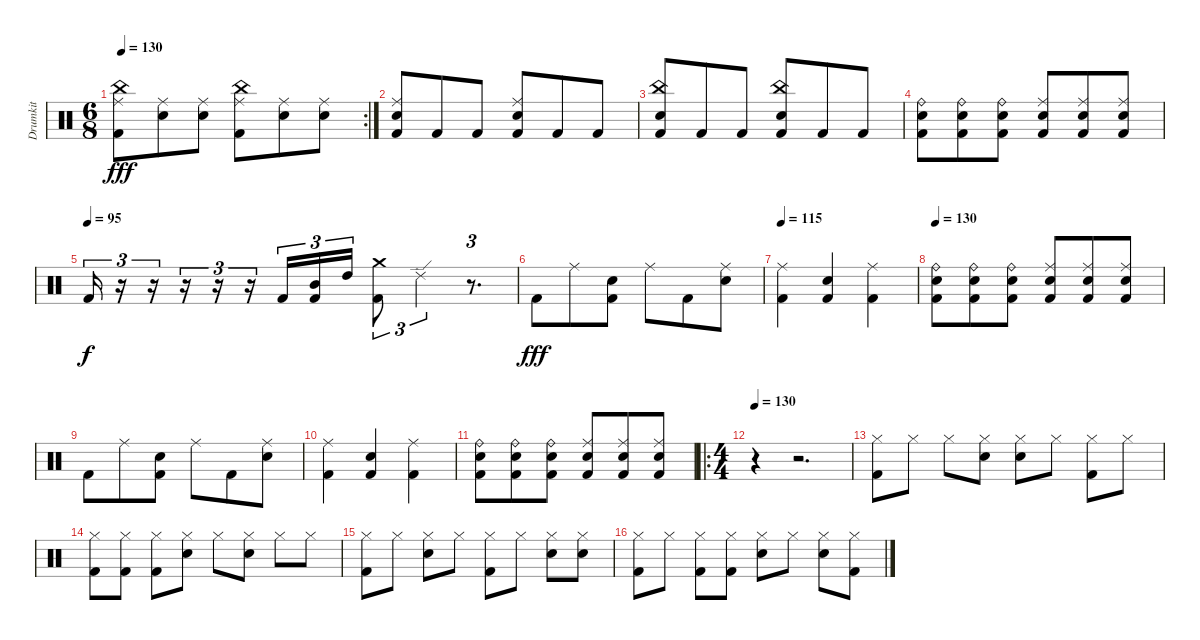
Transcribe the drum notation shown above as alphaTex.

\track ("Drumkit" "Drumkit") {instrument percussion}
\staff {score}
\articulation defaults
\rc 2
\ts (6 8)
\tempo 130
\clef neutral
\ks c
("Kick (hit) 2" "China (hit)" "Ride (middle)").8{dy fff} ("Snare (hit) 2" "Ride (middle)").8 ("Snare (hit) 2" "Ride (middle)").8 ("Kick (hit) 2" "China (hit)" "Ride (middle)").8 ("Snare (hit) 2" "Ride (middle)").8 ("Snare (hit) 2" "Ride (middle)").8 |
("Kick (hit) 2" "Snare (hit) 2" "Ride (middle)").8 "Kick (hit) 2".8 "Kick (hit) 2".8 ("Kick (hit) 2" "Snare (hit) 2" "Ride (middle)").8 "Kick (hit) 2".8 "Kick (hit) 2".8 |
("Kick (hit) 2" "Snare (hit) 2" "China (hit)").8 "Kick (hit) 2".8 "Kick (hit) 2".8 ("Kick (hit) 2" "Snare (hit) 2" "China (hit)").8 "Kick (hit) 2".8 "Kick (hit) 2".8 |
("Kick (hit) 2" "Ride (bell)" "Snare (hit) 2").8 ("Kick (hit) 2" "Ride (bell)" "Snare (hit) 2").8 ("Kick (hit) 2" "Ride (bell)" "Snare (hit) 2").8 ("Kick (hit) 2" "Ride (middle)" "Snare (hit) 2").8 ("Kick (hit) 2" "Ride (middle)" "Snare (hit) 2").8 ("Kick (hit) 2" "Ride (middle)" "Snare (hit) 2").8 |
\tempo (95)
"Kick (hit) 2".16{tu (3 2) dy f} r.16{tu (3 2)} r.16{tu (3 2)} r.16{tu (3 2)} r.16{tu (3 2)} r.16{tu (3 2)} "Kick (hit) 2".16{tu (3 2)} ("Kick (hit) 2" "Mid Tom (hit)").16{tu (3 2)} "High Tom (hit)".16{tu (3 2)} ("Crash medium (hit)" "Kick (hit) 2").8{tu (3 2)} "Ride (edge) 2".4{tu (3 2)} r.8{d tu (3 2)} |
"Kick (hit) 2".8{dy fff} "Ride (middle)".8 ("Kick (hit) 2" "Snare (hit) 2").8 "Ride (middle)".8 "Kick (hit) 2".8 ("Snare (hit) 2" "Ride (middle)").8 |
\tempo 115
("Kick (hit) 2" "Ride (middle)").4 ("Kick (hit) 2" "Snare (hit) 2").4 ("Kick (hit) 2" "Ride (middle)").4 |
\tempo 130
("Kick (hit) 2" "Ride (bell)" "Snare (hit) 2").8 ("Kick (hit) 2" "Ride (bell)" "Snare (hit) 2").8 ("Kick (hit) 2" "Ride (bell)" "Snare (hit) 2").8 ("Kick (hit) 2" "Ride (middle)" "Snare (hit) 2").8 ("Kick (hit) 2" "Ride (middle)" "Snare (hit) 2").8 ("Kick (hit) 2" "Ride (middle)" "Snare (hit) 2").8 |
"Kick (hit) 2".8 "Ride (middle)".8 ("Kick (hit) 2" "Snare (hit) 2").8 "Ride (middle)".8 "Kick (hit) 2".8 ("Snare (hit) 2" "Ride (middle)").8 |
("Kick (hit) 2" "Ride (middle)").4 ("Kick (hit) 2" "Snare (hit) 2").4 ("Kick (hit) 2" "Ride (middle)").4 |
("Kick (hit) 2" "Ride (bell)" "Snare (hit) 2").8 ("Kick (hit) 2" "Ride (bell)" "Snare (hit) 2").8 ("Kick (hit) 2" "Ride (bell)" "Snare (hit) 2").8 ("Kick (hit) 2" "Ride (middle)" "Snare (hit) 2").8 ("Kick (hit) 2" "Ride (middle)" "Snare (hit) 2").8 ("Kick (hit) 2" "Ride (middle)" "Snare (hit) 2").8 |
\ro
\ts (4 4)
\tempo 130
r.4 r.2{d} |
("Kick (hit) 2" "Hi-Hat (closed)").8 "Hi-Hat (closed)".8 "Hi-Hat (closed)".8 ("Snare (hit) 2" "Hi-Hat (closed)").8 ("Snare (hit) 2" "Hi-Hat (closed)").8 "Hi-Hat (closed)".8 ("Kick (hit) 2" "Hi-Hat (closed)").8 "Hi-Hat (closed)".8 |
("Kick (hit) 2" "Hi-Hat (closed)").8 ("Kick (hit) 2" "Hi-Hat (closed)").8 ("Kick (hit) 2" "Hi-Hat (closed)").8 ("Snare (hit) 2" "Hi-Hat (closed)").8 "Hi-Hat (closed)".8 ("Snare (hit) 2" "Hi-Hat (closed)").8 "Hi-Hat (closed)".8 "Hi-Hat (closed)".8 |
("Kick (hit) 2" "Hi-Hat (closed)").8 "Hi-Hat (closed)".8 ("Snare (hit) 2" "Hi-Hat (closed)").8 "Hi-Hat (closed)".8 ("Kick (hit) 2" "Hi-Hat (closed)").8 "Hi-Hat (closed)".8 ("Snare (hit) 2" "Hi-Hat (closed)").8 ("Snare (hit) 2" "Hi-Hat (closed)").8 |
("Kick (hit) 2" "Hi-Hat (closed)").8 "Hi-Hat (closed)".8 ("Kick (hit) 2" "Hi-Hat (closed)").8 ("Kick (hit) 2" "Hi-Hat (closed)").8 ("Snare (hit) 2" "Hi-Hat (closed)").8 "Hi-Hat (closed)".8 ("Snare (hit) 2" "Hi-Hat (closed)").8 ("Kick (hit) 2" "Hi-Hat (closed)").8
